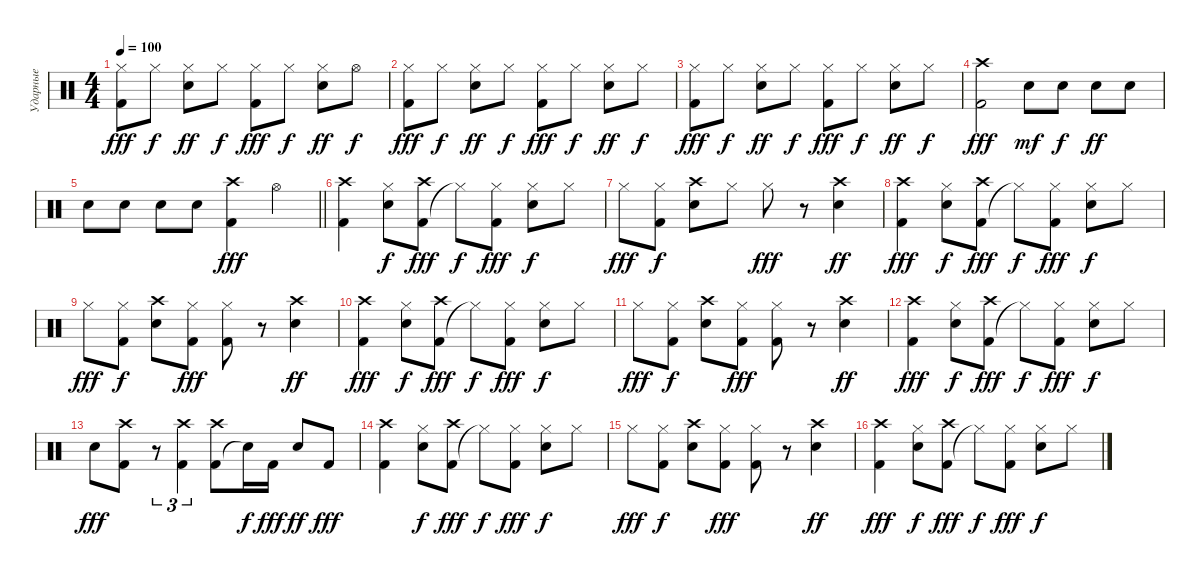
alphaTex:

\track ("Ударные" "Ударные") {instrument percussion}
\staff
\articulation defaults
\ts (4 4)
\tempo 100
\clef neutral
\ks c
("Kick (hit) 2" "Hi-Hat (closed)").8{dy fff} "Hi-Hat (closed)".8{dy f} ("Snare (hit) 2" "Hi-Hat (closed)").8{dy ff} "Hi-Hat (closed)".8{dy f} ("Kick (hit) 2" "Hi-Hat (closed)").8{dy fff} "Hi-Hat (closed)".8{dy f} ("Snare (hit) 2" "Hi-Hat (closed)").8{dy ff} "Hi-Hat (open)".8{dy f} |
("Kick (hit) 2" "Hi-Hat (closed)").8{dy fff} "Hi-Hat (closed)".8{dy f} ("Snare (hit) 2" "Hi-Hat (closed)").8{dy ff} "Hi-Hat (closed)".8{dy f} ("Kick (hit) 2" "Hi-Hat (closed)").8{dy fff} "Hi-Hat (closed)".8{dy f} ("Snare (hit) 2" "Hi-Hat (closed)").8{dy ff} "Hi-Hat (closed)".8{dy f} |
("Kick (hit) 2" "Hi-Hat (closed)").8{dy fff} "Hi-Hat (closed)".8{dy f} ("Snare (hit) 2" "Hi-Hat (closed)").8{dy ff} "Hi-Hat (closed)".8{dy f} ("Kick (hit) 2" "Hi-Hat (closed)").8{dy fff} "Hi-Hat (closed)".8{dy f} ("Snare (hit) 2" "Hi-Hat (closed)").8{dy ff} "Hi-Hat (closed)".8{dy f} |
("Kick (hit) 2" "Crash high (hit)").2{dy fff} "Snare (hit) 2".8{dy mf} "Snare (hit) 2".8{dy f} "Snare (hit) 2".8{dy ff} "Snare (hit) 2".8 |
\barLineRight lightlight "Snare (hit) 2".8 "Snare (hit) 2".8 "Snare (hit) 2".8 "Snare (hit) 2".8
("Kick (hit) 2" "Crash high (hit)").4{dy fff} "Hi-Hat (open)".4 |
("Kick (hit) 2" "Crash high (hit)").4 ("Snare (hit) 2" "Hi-Hat (closed)").8{dy f} ("Kick (hit) 2" "Crash high (hit)").8{dy fff} "Hi-Hat (closed)"{t}.8{dy f} ("Kick (hit) 2" "Hi-Hat (closed)").8{dy fff} ("Snare (hit) 2" "Hi-Hat (closed)").8{dy f} "Hi-Hat (closed)".8 |
"Hi-Hat (closed)".8{dy fff} ("Kick (hit) 2" "Hi-Hat (closed)").8{dy f} ("Snare (hit) 2" "Crash high (hit)").8 "Hi-Hat (closed)".8 "Hi-Hat (closed)".8{dy fff} r.8 ("Snare (hit) 2" "Crash high (hit)").4{dy ff} |
("Kick (hit) 2" "Crash high (hit)").4{dy fff} ("Snare (hit) 2" "Hi-Hat (closed)").8{dy f} ("Kick (hit) 2" "Crash high (hit)").8{dy fff} "Hi-Hat (closed)"{t}.8{dy f} ("Kick (hit) 2" "Hi-Hat (closed)").8{dy fff} ("Snare (hit) 2" "Hi-Hat (closed)").8{dy f} "Hi-Hat (closed)".8 |
"Hi-Hat (closed)".8{dy fff} ("Kick (hit) 2" "Hi-Hat (closed)").8{dy f} ("Snare (hit) 2" "Crash high (hit)").8 ("Kick (hit) 2" "Hi-Hat (closed)").8{dy fff} ("Kick (hit) 2" "Hi-Hat (closed)").8 r.8 ("Snare (hit) 2" "Crash high (hit)").4{dy ff} |
("Kick (hit) 2" "Crash high (hit)").4{dy fff} ("Snare (hit) 2" "Hi-Hat (closed)").8{dy f} ("Kick (hit) 2" "Crash high (hit)").8{dy fff} "Hi-Hat (closed)"{t}.8{dy f} ("Kick (hit) 2" "Hi-Hat (closed)").8{dy fff} ("Snare (hit) 2" "Hi-Hat (closed)").8{dy f} "Hi-Hat (closed)".8 |
"Hi-Hat (closed)".8{dy fff} ("Kick (hit) 2" "Hi-Hat (closed)").8{dy f} ("Snare (hit) 2" "Crash high (hit)").8 ("Kick (hit) 2" "Hi-Hat (closed)").8{dy fff} ("Kick (hit) 2" "Hi-Hat (closed)").8 r.8 ("Snare (hit) 2" "Crash high (hit)").4{dy ff} |
("Kick (hit) 2" "Crash high (hit)").4{dy fff} ("Snare (hit) 2" "Hi-Hat (closed)").8{dy f} ("Kick (hit) 2" "Crash high (hit)").8{dy fff} "Hi-Hat (closed)"{t}.8{dy f} ("Kick (hit) 2" "Hi-Hat (closed)").8{dy fff} ("Snare (hit) 2" "Hi-Hat (closed)").8{dy f} "Hi-Hat (closed)".8 |
"Snare (hit) 2".8{dy fff} ("Kick (hit) 2" "Crash high (hit)").8 r.8{tu (3 2)} ("Kick (hit) 2" "Crash high (hit)").4{tu (3 2)} ("Kick (hit) 2" "Crash high (hit)").8 "Snare (hit)"{t}.16{dy f} "Kick (hit) 2".16{dy fff} "Snare (hit) 2".8{dy ff} "Kick (hit) 2".8{dy fff} |
("Kick (hit) 2" "Crash high (hit)").4 ("Snare (hit) 2" "Hi-Hat (closed)").8{dy f} ("Kick (hit) 2" "Crash high (hit)").8{dy fff} "Hi-Hat (closed)"{t}.8{dy f} ("Kick (hit) 2" "Hi-Hat (closed)").8{dy fff} ("Snare (hit) 2" "Hi-Hat (closed)").8{dy f} "Hi-Hat (closed)".8 |
"Hi-Hat (closed)".8{dy fff} ("Kick (hit) 2" "Hi-Hat (closed)").8{dy f} ("Snare (hit) 2" "Crash high (hit)").8 ("Kick (hit) 2" "Hi-Hat (closed)").8{dy fff} ("Kick (hit) 2" "Hi-Hat (closed)").8 r.8 ("Snare (hit) 2" "Crash high (hit)").4{dy ff} |
("Kick (hit) 2" "Crash high (hit)").4{dy fff} ("Snare (hit) 2" "Hi-Hat (closed)").8{dy f} ("Kick (hit) 2" "Crash high (hit)").8{dy fff} "Hi-Hat (closed)"{t}.8{dy f} ("Kick (hit) 2" "Hi-Hat (closed)").8{dy fff} ("Snare (hit) 2" "Hi-Hat (closed)").8{dy f} "Hi-Hat (closed)".8
